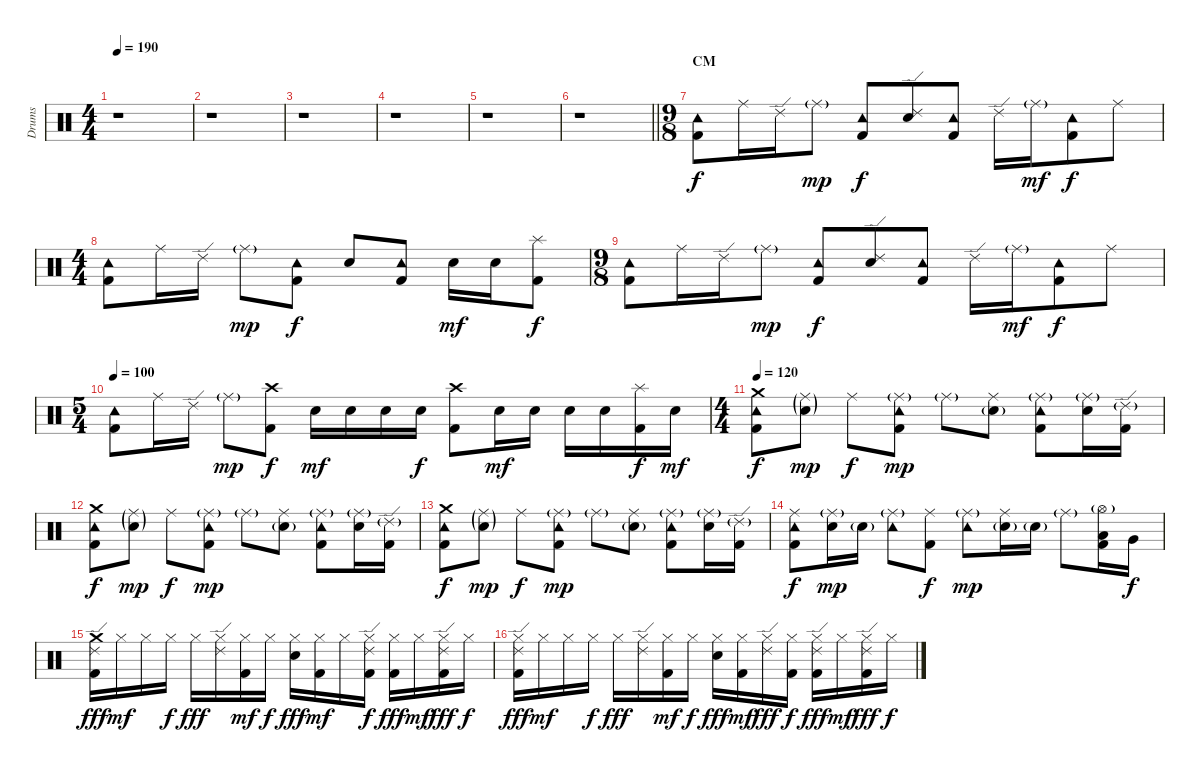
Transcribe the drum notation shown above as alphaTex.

\track ("Drums" "Drums") {instrument percussion}
\staff {score}
\articulation defaults
\ts (4 4)
\tempo 190
\clef neutral
\ks c
r.1{dy f} |
r.1 |
r.1 |
r.1 |
r.1 |
\barLineRight lightlight
r.1 |
\ts (9 8)
\section ("" "CM")
("Tambourine (hit)" "Kick (hit) 2").8 "Ride (middle)".16 "Ride (edge) 2".16 "Ride (middle)"{g}.8{dy mp} ("Tambourine (hit)" "Kick (hit) 2").8{dy f} ("Ride (edge) 2" "Electric Snare (hit)").8 ("Tambourine (hit)" "Kick (hit) 2").8 "Ride (edge) 2".16 "Ride (middle)"{g}.16{dy mf} ("Tambourine (hit)" "Kick (hit) 2").8{dy f} "Ride (middle)".8 |
\ts (4 4)
("Tambourine (hit)" "Kick (hit) 2").8 "Ride (middle)".16 "Ride (edge) 2".16 "Ride (middle)"{g}.8{dy mp} ("Tambourine (hit)" "Kick (hit) 2").8{dy f} "Electric Snare (hit)".8 ("Tambourine (hit)" "Kick (hit) 2").8 "Electric Snare (hit)".16{dy mf} "Electric Snare (hit)".16 ("Splash (hit)" "Kick (hit) 2").8{dy f} |
\ts (9 8)
("Tambourine (hit)" "Kick (hit) 2").8 "Ride (middle)".16 "Ride (edge) 2".16 "Ride (middle)"{g}.8{dy mp} ("Tambourine (hit)" "Kick (hit) 2").8{dy f} ("Ride (edge) 2" "Electric Snare (hit)").8 ("Tambourine (hit)" "Kick (hit) 2").8 "Ride (edge) 2".16 "Ride (middle)"{g}.16{dy mf} ("Tambourine (hit)" "Kick (hit) 2").8{dy f} "Ride (middle)".8 |
\ts (5 4)
\tempo 100
("Tambourine (hit)" "Kick (hit) 2").8 "Ride (middle)".16 "Ride (edge) 2".16 "Ride (middle)"{g}.8{dy mp} ("Crash high (hit)" "Kick (hit) 2").8{dy f} "Electric Snare (hit)".16{dy mf} "Electric Snare (hit)".16 "Electric Snare (hit)".16 "Electric Snare (hit)".16{dy f} ("Crash high (hit)" "Kick (hit) 2").8 "Electric Snare (hit)".16{dy mf} "Electric Snare (hit)".16 "Electric Snare (hit)".16 "Electric Snare (hit)".16 ("Splash (hit)" "Kick (hit) 2").16{dy f} "Electric Snare (hit)".16{dy mf} |
\ts (4 4)
\tempo 120
("Crash medium (hit)" "Tambourine (hit)" "Kick (hit) 2").8{dy f} ("Ride (middle)"{g} "Electric Snare (hit)"{g}).8{dy mp} "Ride (middle)".8{dy f} ("Ride (middle)"{g} "Tambourine (hit)" "Kick (hit) 2").8{dy mp} "Ride (middle)"{g}.8 ("Ride (middle)" "Electric Snare (hit)"{g}).8 ("Ride (middle)"{g} "Tambourine (hit)" "Kick (hit) 2").8 ("Ride (middle)"{g} "Electric Snare (hit)").16 ("Ride (edge) 2"{g} "Kick (hit) 2").16 |
("Crash medium (hit)" "Tambourine (hit)" "Kick (hit) 2").8{dy f} ("Ride (middle)"{g} "Electric Snare (hit)"{g}).8{dy mp} "Ride (middle)".8{dy f} ("Ride (middle)"{g} "Tambourine (hit)" "Kick (hit) 2").8{dy mp} "Ride (middle)"{g}.8 ("Ride (middle)" "Electric Snare (hit)"{g}).8 ("Ride (middle)"{g} "Tambourine (hit)" "Kick (hit) 2").8 ("Ride (middle)"{g} "Electric Snare (hit)").16 ("Ride (edge) 2"{g} "Kick (hit) 2").16 |
("Crash medium (hit)" "Tambourine (hit)" "Kick (hit) 2").8{dy f} ("Ride (middle)"{g} "Electric Snare (hit)"{g}).8{dy mp} "Ride (middle)".8{dy f} ("Ride (middle)"{g} "Tambourine (hit)" "Kick (hit) 2").8{dy mp} "Ride (middle)"{g}.8 ("Ride (middle)" "Electric Snare (hit)"{g}).8 ("Ride (middle)"{g} "Tambourine (hit)" "Kick (hit) 2").8 ("Ride (middle)"{g} "Electric Snare (hit)").16 ("Ride (edge) 2"{g} "Kick (hit) 2").16 |
("Ride (middle)" "Tambourine (hit)" "Kick (hit) 2").8{dy f} ("Ride (middle)"{g} "Electric Snare (hit)").16{dy mp} "Electric Snare (hit)"{g}.16 ("Ride (middle)"{g} "Tambourine (hit)").8 ("Ride (middle)" "Kick (hit) 2").8{dy f} ("Ride (middle)"{g} "Tambourine (hit)").8{dy mp} ("Ride (middle)" "Electric Snare (hit)"{g}).16 "Electric Snare (hit)"{g}.16 "Ride (middle)"{g}.8 ("Hi-Hat (open)"{g} "Low Floor Tom (hit)" "Kick (hit) 2").16 "Very Low Tom (hit)".16{dy f} |
("Crash medium (hit)" "Ride (edge) 2" "Kick (hit) 2").16{dy fff} "Hi-Hat (closed)".16{dy mf} "Hi-Hat (closed)".16 "Hi-Hat (closed)".16{dy f} "Hi-Hat (closed)".16{dy fff} ("Hi-Hat (closed)" "Ride (edge) 2").16 ("Hi-Hat (closed)" "Kick (hit) 2").16{dy mf} "Hi-Hat (closed)".16{dy f} ("Hi-Hat (closed)" "Electric Snare (hit)").16{dy fff} ("Hi-Hat (closed)" "Kick (hit) 2").16{dy mf} "Hi-Hat (closed)".16 ("Hi-Hat (closed)" "Ride (edge) 2" "Kick (hit) 2").16{dy f} ("Hi-Hat (closed)" "Kick (hit) 2").16{dy fff} "Hi-Hat (closed)".16{dy mf} ("Hi-Hat (closed)" "Ride (edge) 2" "Kick (hit) 2").16{dy fff} "Hi-Hat (closed)".16{dy f} |
("Hi-Hat (closed)" "Ride (edge) 2" "Kick (hit) 2").16{dy fff} "Hi-Hat (closed)".16{dy mf} "Hi-Hat (closed)".16 "Hi-Hat (closed)".16{dy f} "Hi-Hat (closed)".16{dy fff} ("Hi-Hat (closed)" "Ride (edge) 2").16 ("Hi-Hat (closed)" "Kick (hit) 2").16{dy mf} "Hi-Hat (closed)".16{dy f} ("Hi-Hat (closed)" "Electric Snare (hit)").16{dy fff} ("Hi-Hat (closed)" "Kick (hit) 2").16{dy mf} ("Hi-Hat (closed)" "Ride (edge) 2").16{dy fff} ("Hi-Hat (closed)" "Kick (hit) 2").16{dy f} ("Hi-Hat (closed)" "Ride (edge) 2" "Kick (hit) 2").16{dy fff} "Hi-Hat (closed)".16{dy mf} ("Hi-Hat (closed)" "Ride (edge) 2" "Kick (hit) 2").16{dy fff} "Hi-Hat (closed)".16{dy f}
